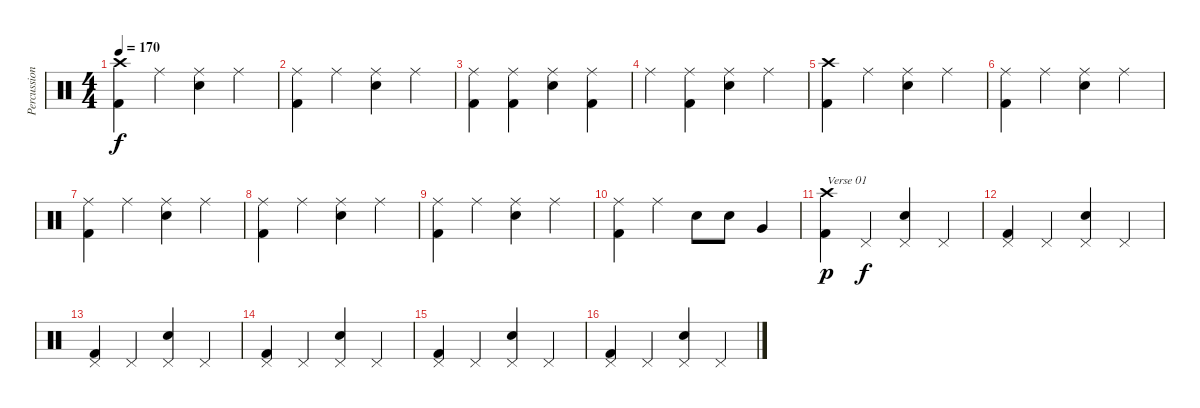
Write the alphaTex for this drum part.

\track ("Percussion" "Percussion") {instrument percussion}
\staff {score}
\articulation defaults
\ts (4 4)
\tempo 170
\clef neutral
\ks c
("Crash high (hit)" "Kick (hit) 2").4{dy f} "Ride (middle)".4 ("Ride (middle)" "Snare (hit) 2").4 "Ride (middle)".4 |
("Ride (middle)" "Kick (hit) 2").4 "Ride (middle)".4 ("Ride (middle)" "Snare (hit) 2").4 "Ride (middle)".4 |
("Ride (middle)" "Kick (hit) 2").4 ("Ride (middle)" "Kick (hit) 2").4 ("Ride (middle)" "Snare (hit) 2").4 ("Ride (middle)" "Kick (hit) 2").4 |
"Ride (middle)".4 ("Ride (middle)" "Kick (hit) 2").4 ("Ride (middle)" "Snare (hit) 2").4 "Ride (middle)".4 |
("Crash high (hit)" "Kick (hit) 2").4 "Ride (middle)".4 ("Ride (middle)" "Snare (hit) 2").4 "Ride (middle)".4 |
("Ride (middle)" "Kick (hit) 2").4 "Ride (middle)".4 ("Ride (middle)" "Snare (hit) 2").4 "Ride (middle)".4 |
("Ride (middle)" "Kick (hit) 2").4 "Ride (middle)".4 ("Ride (middle)" "Snare (hit) 2").4 "Ride (middle)".4 |
("Ride (middle)" "Kick (hit) 2").4 "Ride (middle)".4 ("Ride (middle)" "Snare (hit) 2").4 "Ride (middle)".4 |
("Ride (middle)" "Kick (hit) 2").4 "Ride (middle)".4 ("Ride (middle)" "Snare (hit) 2").4 "Ride (middle)".4 |
("Ride (middle)" "Kick (hit) 2").4 "Ride (middle)".4 "Snare (hit) 2".8 "Snare (hit) 2".8 "Very Low Tom (hit)".4 |
("Crash high (hit)" "Kick (hit) 2").4{txt "Verse 01" dy p} "Pedal Hi-Hat (hit)".4{dy f} ("Pedal Hi-Hat (hit)" "Snare (hit) 2").4 "Pedal Hi-Hat (hit)".4 |
("Pedal Hi-Hat (hit)" "Kick (hit) 2").4 "Pedal Hi-Hat (hit)".4 ("Pedal Hi-Hat (hit)" "Snare (hit) 2").4 "Pedal Hi-Hat (hit)".4 |
("Pedal Hi-Hat (hit)" "Kick (hit) 2").4 "Pedal Hi-Hat (hit)".4 ("Pedal Hi-Hat (hit)" "Snare (hit) 2").4 "Pedal Hi-Hat (hit)".4 |
("Pedal Hi-Hat (hit)" "Kick (hit) 2").4 "Pedal Hi-Hat (hit)".4 ("Pedal Hi-Hat (hit)" "Snare (hit) 2").4 "Pedal Hi-Hat (hit)".4 |
("Pedal Hi-Hat (hit)" "Kick (hit) 2").4 "Pedal Hi-Hat (hit)".4 ("Pedal Hi-Hat (hit)" "Snare (hit) 2").4 "Pedal Hi-Hat (hit)".4 |
("Pedal Hi-Hat (hit)" "Kick (hit) 2").4 "Pedal Hi-Hat (hit)".4 ("Pedal Hi-Hat (hit)" "Snare (hit) 2").4 "Pedal Hi-Hat (hit)".4
